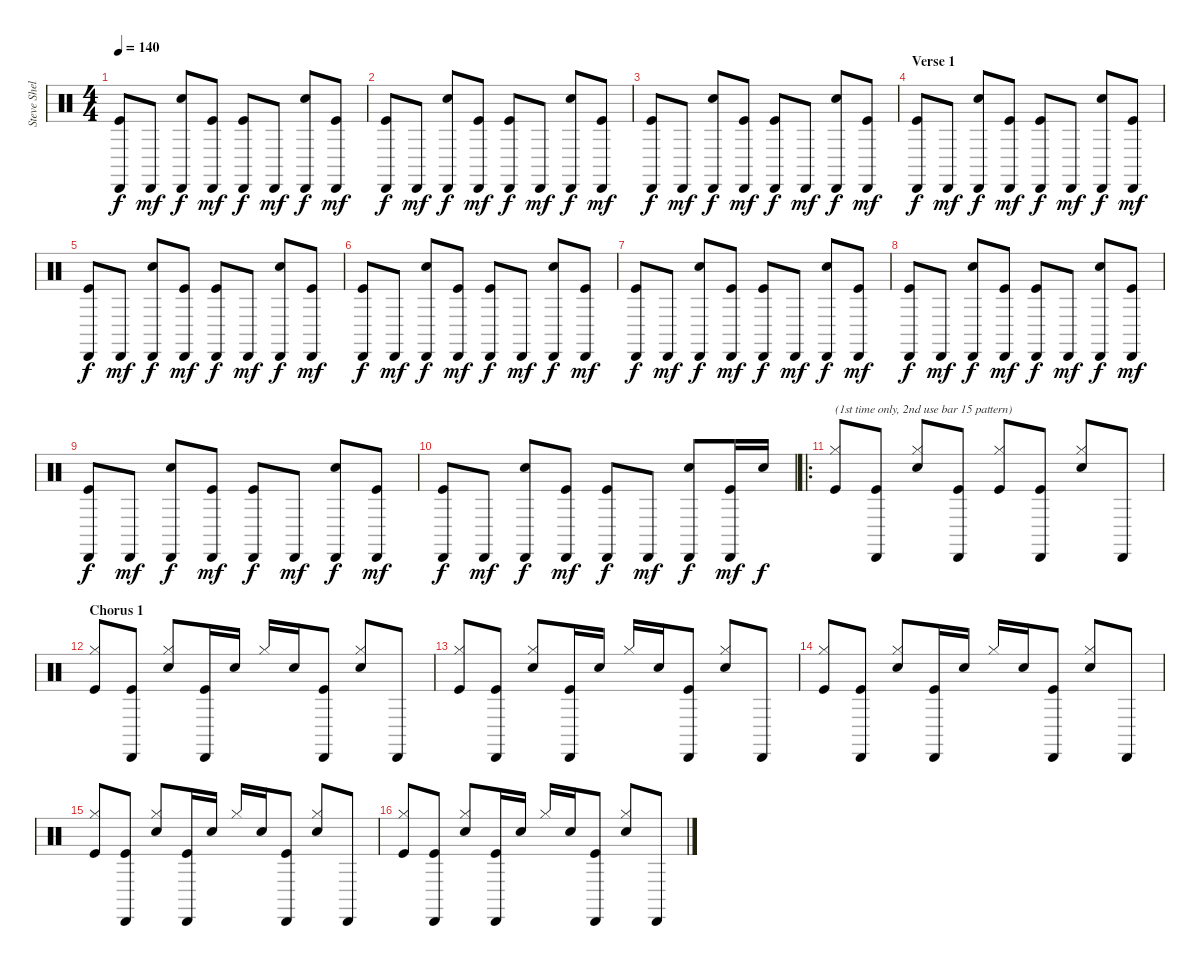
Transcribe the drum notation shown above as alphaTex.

\track ("Steve Shelley" "Steve Shel") {instrument percussion}
\staff {score}
\articulation defaults
\ts (4 4)
\tempo 140
\clef neutral
\ks c
("Cabasa (hit)" "Kick (hit)").8{dy f} "Cabasa (hit)".8{dy mf} ("Cabasa (hit)" "Electric Snare (hit)").8{dy f} ("Cabasa (hit)" "Kick (hit)").8{dy mf} ("Cabasa (hit)" "Kick (hit)").8{dy f} "Cabasa (hit)".8{dy mf} ("Cabasa (hit)" "Electric Snare (hit)").8{dy f} ("Cabasa (hit)" "Kick (hit)").8{dy mf} |
("Cabasa (hit)" "Kick (hit)").8{dy f} "Cabasa (hit)".8{dy mf} ("Cabasa (hit)" "Electric Snare (hit)").8{dy f} ("Cabasa (hit)" "Kick (hit)").8{dy mf} ("Cabasa (hit)" "Kick (hit)").8{dy f} "Cabasa (hit)".8{dy mf} ("Cabasa (hit)" "Electric Snare (hit)").8{dy f} ("Cabasa (hit)" "Kick (hit)").8{dy mf} |
("Cabasa (hit)" "Kick (hit)").8{dy f} "Cabasa (hit)".8{dy mf} ("Cabasa (hit)" "Electric Snare (hit)").8{dy f} ("Cabasa (hit)" "Kick (hit)").8{dy mf} ("Cabasa (hit)" "Kick (hit)").8{dy f} "Cabasa (hit)".8{dy mf} ("Cabasa (hit)" "Electric Snare (hit)").8{dy f} ("Cabasa (hit)" "Kick (hit)").8{dy mf} |
\section ("" "Verse 1")
("Cabasa (hit)" "Kick (hit)").8{dy f} "Cabasa (hit)".8{dy mf} ("Cabasa (hit)" "Electric Snare (hit)").8{dy f} ("Cabasa (hit)" "Kick (hit)").8{dy mf} ("Cabasa (hit)" "Kick (hit)").8{dy f} "Cabasa (hit)".8{dy mf} ("Cabasa (hit)" "Electric Snare (hit)").8{dy f} ("Cabasa (hit)" "Kick (hit)").8{dy mf} |
("Cabasa (hit)" "Kick (hit)").8{dy f} "Cabasa (hit)".8{dy mf} ("Cabasa (hit)" "Electric Snare (hit)").8{dy f} ("Cabasa (hit)" "Kick (hit)").8{dy mf} ("Cabasa (hit)" "Kick (hit)").8{dy f} "Cabasa (hit)".8{dy mf} ("Cabasa (hit)" "Electric Snare (hit)").8{dy f} ("Cabasa (hit)" "Kick (hit)").8{dy mf} |
("Cabasa (hit)" "Kick (hit)").8{dy f} "Cabasa (hit)".8{dy mf} ("Cabasa (hit)" "Electric Snare (hit)").8{dy f} ("Cabasa (hit)" "Kick (hit)").8{dy mf} ("Cabasa (hit)" "Kick (hit)").8{dy f} "Cabasa (hit)".8{dy mf} ("Cabasa (hit)" "Electric Snare (hit)").8{dy f} ("Cabasa (hit)" "Kick (hit)").8{dy mf} |
("Cabasa (hit)" "Kick (hit)").8{dy f} "Cabasa (hit)".8{dy mf} ("Cabasa (hit)" "Electric Snare (hit)").8{dy f} ("Cabasa (hit)" "Kick (hit)").8{dy mf} ("Cabasa (hit)" "Kick (hit)").8{dy f} "Cabasa (hit)".8{dy mf} ("Cabasa (hit)" "Electric Snare (hit)").8{dy f} ("Cabasa (hit)" "Kick (hit)").8{dy mf} |
("Cabasa (hit)" "Kick (hit)").8{dy f} "Cabasa (hit)".8{dy mf} ("Cabasa (hit)" "Electric Snare (hit)").8{dy f} ("Cabasa (hit)" "Kick (hit)").8{dy mf} ("Cabasa (hit)" "Kick (hit)").8{dy f} "Cabasa (hit)".8{dy mf} ("Cabasa (hit)" "Electric Snare (hit)").8{dy f} ("Cabasa (hit)" "Kick (hit)").8{dy mf} |
("Cabasa (hit)" "Kick (hit)").8{dy f} "Cabasa (hit)".8{dy mf} ("Cabasa (hit)" "Electric Snare (hit)").8{dy f} ("Cabasa (hit)" "Kick (hit)").8{dy mf} ("Cabasa (hit)" "Kick (hit)").8{dy f} "Cabasa (hit)".8{dy mf} ("Cabasa (hit)" "Electric Snare (hit)").8{dy f} ("Cabasa (hit)" "Kick (hit)").8{dy mf} |
("Cabasa (hit)" "Kick (hit)").8{dy f} "Cabasa (hit)".8{dy mf} ("Cabasa (hit)" "Electric Snare (hit)").8{dy f} ("Cabasa (hit)" "Kick (hit)").8{dy mf} ("Cabasa (hit)" "Kick (hit)").8{dy f} "Cabasa (hit)".8{dy mf} ("Cabasa (hit)" "Electric Snare (hit)").8{dy f} ("Cabasa (hit)" "Kick (hit)").16{dy mf} "Electric Snare (hit)".16{dy f} |
\ro
("Hi-Hat (closed)" "Kick (hit)").8{txt "(1st time only, 2nd use bar 15 pattern)"} ("Cabasa (hit)" "Kick (hit)").8 ("Hi-Hat (closed)" "Electric Snare (hit)").8 ("Cabasa (hit)" "Kick (hit)").8 ("Hi-Hat (closed)" "Kick (hit)").8 ("Cabasa (hit)" "Kick (hit)").8 ("Hi-Hat (closed)" "Electric Snare (hit)").8 "Cabasa (hit)".8 |
\section ("" "Chorus 1")
("Hi-Hat (closed)" "Kick (hit)").8 ("Cabasa (hit)" "Kick (hit)").8 ("Hi-Hat (closed)" "Electric Snare (hit)").8 ("Cabasa (hit)" "Kick (hit)").16 "Electric Snare (hit)".16 "Hi-Hat (closed)".16 "Electric Snare (hit)".16 ("Cabasa (hit)" "Kick (hit)").8 ("Hi-Hat (closed)" "Electric Snare (hit)").8 "Cabasa (hit)".8 |
("Hi-Hat (closed)" "Kick (hit)").8 ("Cabasa (hit)" "Kick (hit)").8 ("Hi-Hat (closed)" "Electric Snare (hit)").8 ("Cabasa (hit)" "Kick (hit)").16 "Electric Snare (hit)".16 "Hi-Hat (closed)".16 "Electric Snare (hit)".16 ("Cabasa (hit)" "Kick (hit)").8 ("Hi-Hat (closed)" "Electric Snare (hit)").8 "Cabasa (hit)".8 |
("Hi-Hat (closed)" "Kick (hit)").8 ("Cabasa (hit)" "Kick (hit)").8 ("Hi-Hat (closed)" "Electric Snare (hit)").8 ("Cabasa (hit)" "Kick (hit)").16 "Electric Snare (hit)".16 "Hi-Hat (closed)".16 "Electric Snare (hit)".16 ("Cabasa (hit)" "Kick (hit)").8 ("Hi-Hat (closed)" "Electric Snare (hit)").8 "Cabasa (hit)".8 |
("Hi-Hat (closed)" "Kick (hit)").8 ("Cabasa (hit)" "Kick (hit)").8 ("Hi-Hat (closed)" "Electric Snare (hit)").8 ("Cabasa (hit)" "Kick (hit)").16 "Electric Snare (hit)".16 "Hi-Hat (closed)".16 "Electric Snare (hit)".16 ("Cabasa (hit)" "Kick (hit)").8 ("Hi-Hat (closed)" "Electric Snare (hit)").8 "Cabasa (hit)".8 |
("Hi-Hat (closed)" "Kick (hit)").8 ("Cabasa (hit)" "Kick (hit)").8 ("Hi-Hat (closed)" "Electric Snare (hit)").8 ("Cabasa (hit)" "Kick (hit)").16 "Electric Snare (hit)".16 "Hi-Hat (closed)".16 "Electric Snare (hit)".16 ("Cabasa (hit)" "Kick (hit)").8 ("Hi-Hat (closed)" "Electric Snare (hit)").8 "Cabasa (hit)".8
